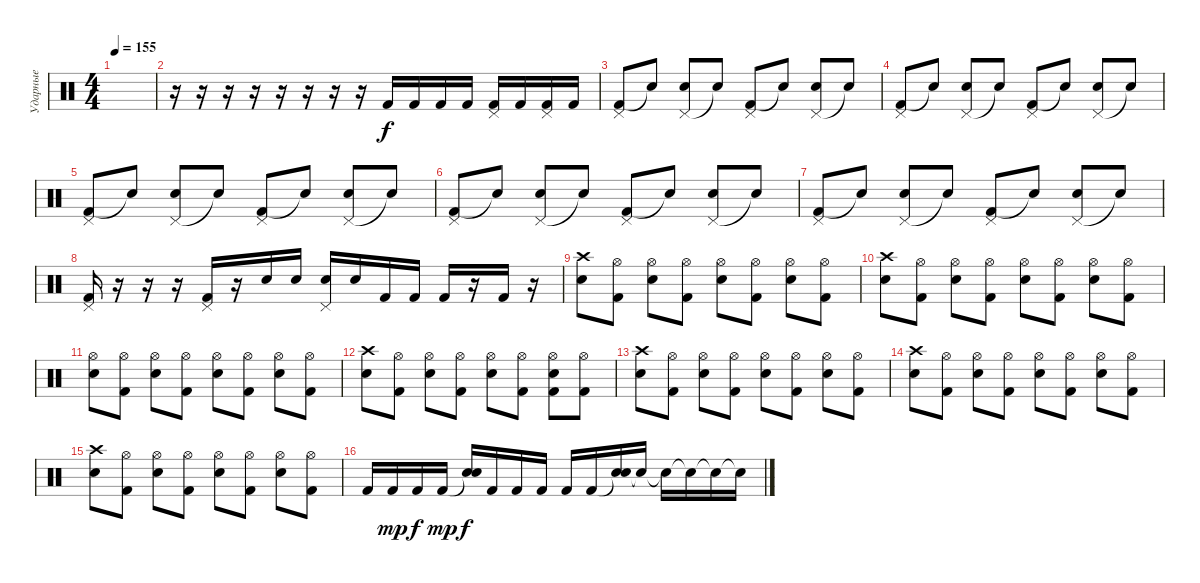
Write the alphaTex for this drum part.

\track ("Ударные" "Ударные") {instrument percussion}
\staff {score}
\articulation defaults
\ts (4 4)
\tempo 155
\clef neutral
\ks c
|
r.16 r.16 r.16 r.16 r.16 r.16 r.16 r.16 "Kick (hit) 2".16 "Kick (hit) 2".16 "Kick (hit) 2".16 "Kick (hit) 2".16 ("Kick (hit) 2" "Pedal Hi-Hat (hit)").16 "Kick (hit) 2".16 ("Kick (hit) 2" "Pedal Hi-Hat (hit)").16 "Kick (hit) 2".16 |
("Kick (hit) 2" "Pedal Hi-Hat (hit)").8 "Snare (hit)"{t}.8 ("Pedal Hi-Hat (hit)" "Snare (hit) 2").8 "Snare (hit)"{t}.8 ("Kick (hit) 2" "Pedal Hi-Hat (hit)").8 "Snare (hit)"{t}.8 ("Pedal Hi-Hat (hit)" "Snare (hit) 2").8 "Snare (hit)"{t}.8 |
("Kick (hit) 2" "Pedal Hi-Hat (hit)").8 "Snare (hit)"{t}.8 ("Pedal Hi-Hat (hit)" "Snare (hit) 2").8 "Snare (hit)"{t}.8 ("Kick (hit) 2" "Pedal Hi-Hat (hit)").8 "Snare (hit)"{t}.8 ("Pedal Hi-Hat (hit)" "Snare (hit) 2").8 "Snare (hit)"{t}.8 |
("Kick (hit) 2" "Pedal Hi-Hat (hit)").8 "Snare (hit)"{t}.8 ("Pedal Hi-Hat (hit)" "Snare (hit) 2").8 "Snare (hit)"{t}.8 ("Kick (hit) 2" "Pedal Hi-Hat (hit)").8 "Snare (hit)"{t}.8 ("Pedal Hi-Hat (hit)" "Snare (hit) 2").8 "Snare (hit)"{t}.8 |
("Kick (hit) 2" "Pedal Hi-Hat (hit)").8 "Snare (hit)"{t}.8 ("Pedal Hi-Hat (hit)" "Snare (hit) 2").8 "Snare (hit)"{t}.8 ("Kick (hit) 2" "Pedal Hi-Hat (hit)").8 "Snare (hit)"{t}.8 ("Pedal Hi-Hat (hit)" "Snare (hit) 2").8 "Snare (hit)"{t}.8 |
("Kick (hit) 2" "Pedal Hi-Hat (hit)").8 "Snare (hit)"{t}.8 ("Pedal Hi-Hat (hit)" "Snare (hit) 2").8 "Snare (hit)"{t}.8 ("Kick (hit) 2" "Pedal Hi-Hat (hit)").8 "Snare (hit)"{t}.8 ("Pedal Hi-Hat (hit)" "Snare (hit) 2").8 "Snare (hit)"{t}.8 |
("Kick (hit) 2" "Pedal Hi-Hat (hit)").16 r.16 r.16 r.16 ("Kick (hit) 2" "Pedal Hi-Hat (hit)").16 r.16 "Snare (hit) 2".16 "Snare (hit) 2".16 ("Pedal Hi-Hat (hit)" "Snare (hit) 2").16 "Snare (hit) 2".16 "Kick (hit) 2".16 "Kick (hit) 2".16 "Kick (hit) 2".16 r.16 "Kick (hit) 2".16 r.16 |
("Crash high (hit)" "Snare (hit) 2").8 ("Kick (hit) 2" "Hi-Hat (open)").8 ("Hi-Hat (open)" "Snare (hit) 2").8 ("Kick (hit) 2" "Hi-Hat (open)").8 ("Hi-Hat (open)" "Snare (hit) 2").8 ("Kick (hit) 2" "Hi-Hat (open)").8 ("Hi-Hat (open)" "Snare (hit) 2").8 ("Kick (hit) 2" "Hi-Hat (open)").8 |
("Crash high (hit)" "Snare (hit) 2").8 ("Kick (hit) 2" "Hi-Hat (open)").8 ("Hi-Hat (open)" "Snare (hit) 2").8 ("Kick (hit) 2" "Hi-Hat (open)").8 ("Hi-Hat (open)" "Snare (hit) 2").8 ("Kick (hit) 2" "Hi-Hat (open)").8 ("Hi-Hat (open)" "Snare (hit) 2").8 ("Kick (hit) 2" "Hi-Hat (open)").8 |
("Hi-Hat (open)" "Snare (hit) 2").8 ("Kick (hit) 2" "Hi-Hat (open)").8 ("Hi-Hat (open)" "Snare (hit) 2").8 ("Kick (hit) 2" "Hi-Hat (open)").8 ("Hi-Hat (open)" "Snare (hit) 2").8 ("Kick (hit) 2" "Hi-Hat (open)").8 ("Hi-Hat (open)" "Snare (hit) 2").8 ("Kick (hit) 2" "Hi-Hat (open)").8 |
("Crash high (hit)" "Snare (hit) 2").8 ("Kick (hit) 2" "Hi-Hat (open)").8 ("Hi-Hat (open)" "Snare (hit) 2").8 ("Kick (hit) 2" "Hi-Hat (open)").8 ("Hi-Hat (open)" "Snare (hit) 2").8 ("Kick (hit) 2" "Hi-Hat (open)").8 ("Kick (hit) 2" "Hi-Hat (open)" "Snare (hit) 2").8 ("Kick (hit) 2" "Hi-Hat (open)").8 |
("Crash high (hit)" "Snare (hit) 2").8 ("Kick (hit) 2" "Hi-Hat (open)").8 ("Hi-Hat (open)" "Snare (hit) 2").8 ("Kick (hit) 2" "Hi-Hat (open)").8 ("Hi-Hat (open)" "Snare (hit) 2").8 ("Kick (hit) 2" "Hi-Hat (open)").8 ("Hi-Hat (open)" "Snare (hit) 2").8 ("Kick (hit) 2" "Hi-Hat (open)").8 |
("Crash high (hit)" "Snare (hit) 2").8 ("Kick (hit) 2" "Hi-Hat (open)").8 ("Hi-Hat (open)" "Snare (hit) 2").8 ("Kick (hit) 2" "Hi-Hat (open)").8 ("Hi-Hat (open)" "Snare (hit) 2").8 ("Kick (hit) 2" "Hi-Hat (open)").8 ("Hi-Hat (open)" "Snare (hit) 2").8 ("Kick (hit) 2" "Hi-Hat (open)").8 |
("Crash high (hit)" "Snare (hit) 2").8 ("Kick (hit) 2" "Hi-Hat (open)").8 ("Hi-Hat (open)" "Snare (hit) 2").8 ("Kick (hit) 2" "Hi-Hat (open)").8 ("Hi-Hat (open)" "Snare (hit) 2").8 ("Kick (hit) 2" "Hi-Hat (open)").8 ("Hi-Hat (open)" "Snare (hit) 2").8 ("Kick (hit) 2" "Hi-Hat (open)").8 |
"Kick (hit) 2".16 "Kick (hit) 2".16{dy mp} "Kick (hit) 2".16{dy f} "Kick (hit) 2".16{dy mp} ("Snare (hit)"{t} "Snare (hit) 2").16{dy f} "Kick (hit) 2".16 "Kick (hit) 2".16 "Kick (hit) 2".16 "Kick (hit) 2".16 "Kick (hit) 2".16 ("Snare (hit)"{t} "Snare (hit) 2").16 "Snare (hit)"{t}.16 "Snare (hit)"{t}.16 "Snare (hit)"{t}.16 "Snare (hit)"{t}.16 "Snare (hit)"{t}.16
